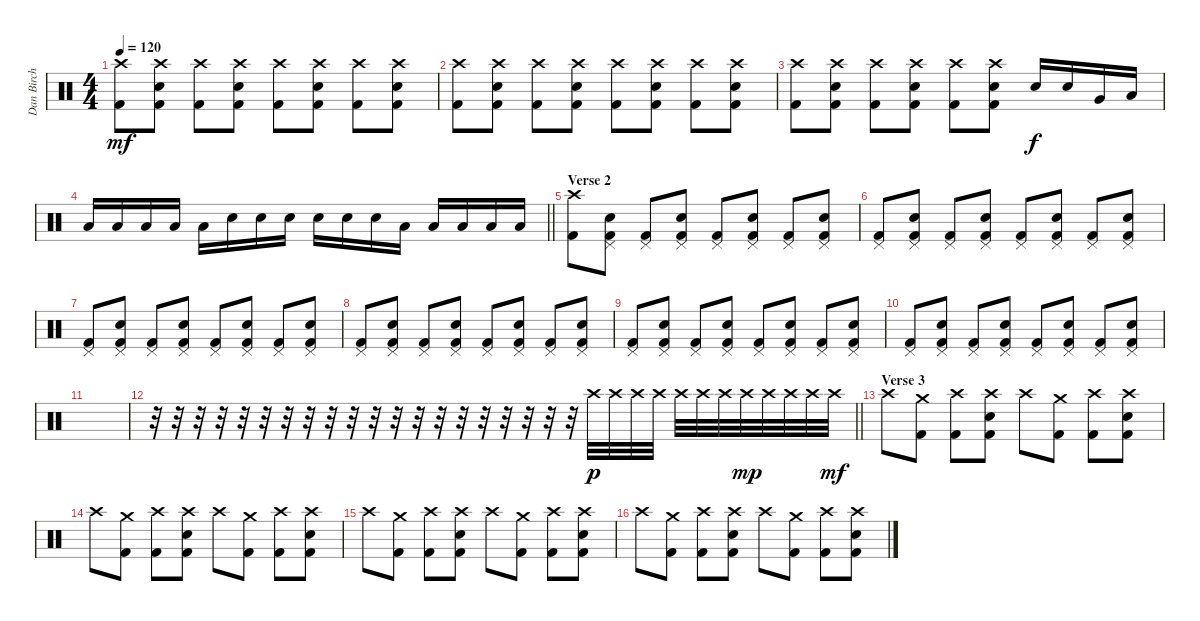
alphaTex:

\track ("Dan Birch" "Dan Birch") {instrument percussion}
\staff {score}
\articulation defaults
\ts (4 4)
\tempo 120
\clef neutral
\ks c
("Crash high (hit)" "Kick (hit) 2").8{dy mf} ("Crash high (hit)" "Snare (hit) 2" "Kick (hit) 2").8 ("Crash high (hit)" "Kick (hit) 2").8 ("Crash high (hit)" "Snare (hit) 2" "Kick (hit) 2").8 ("Crash high (hit)" "Kick (hit) 2").8 ("Crash high (hit)" "Snare (hit) 2" "Kick (hit) 2").8 ("Crash high (hit)" "Kick (hit) 2").8 ("Crash high (hit)" "Snare (hit) 2" "Kick (hit) 2").8 |
("Crash high (hit)" "Kick (hit) 2").8 ("Crash high (hit)" "Snare (hit) 2" "Kick (hit) 2").8 ("Crash high (hit)" "Kick (hit) 2").8 ("Crash high (hit)" "Snare (hit) 2" "Kick (hit) 2").8 ("Crash high (hit)" "Kick (hit) 2").8 ("Crash high (hit)" "Snare (hit) 2" "Kick (hit) 2").8 ("Crash high (hit)" "Kick (hit) 2").8 ("Crash high (hit)" "Snare (hit) 2" "Kick (hit) 2").8 |
("Crash high (hit)" "Kick (hit) 2").8 ("Crash high (hit)" "Snare (hit) 2" "Kick (hit) 2").8 ("Crash high (hit)" "Kick (hit) 2").8 ("Crash high (hit)" "Snare (hit) 2" "Kick (hit) 2").8 ("Crash high (hit)" "Kick (hit) 2").8 ("Crash high (hit)" "Snare (hit) 2" "Kick (hit) 2").8 "Snare (hit) 2".16{dy f} "Snare (hit) 2".16 "Very Low Tom (hit)".16 "Low Tom (hit)".16 |
\barLineRight lightlight "Low Tom (hit)".16 "Low Tom (hit)".16 "Low Tom (hit)".16 "Low Tom (hit)".16 "Low Tom (hit)".16 "Snare (hit) 2".16 "Snare (hit) 2".16 "Snare (hit) 2".16 "Snare (hit) 2".16 "Snare (hit) 2".16 "Snare (hit) 2".16 "Low Floor Tom (hit)".16 "Low Floor Tom (hit)".16 "Low Floor Tom (hit)".16 "Low Floor Tom (hit)".16 "Low Floor Tom (hit)".16
|
\section ("" "Verse 2")
("Crash high (hit)" "Kick (hit) 2").8 ("Pedal Hi-Hat (hit)" "Snare (hit) 2" "Kick (hit) 2").8 ("Pedal Hi-Hat (hit)" "Kick (hit) 2").8 ("Pedal Hi-Hat (hit)" "Snare (hit) 2" "Kick (hit) 2").8 ("Pedal Hi-Hat (hit)" "Kick (hit) 2").8 ("Pedal Hi-Hat (hit)" "Snare (hit) 2" "Kick (hit) 2").8 ("Pedal Hi-Hat (hit)" "Kick (hit) 2").8 ("Pedal Hi-Hat (hit)" "Snare (hit) 2" "Kick (hit) 2").8 |
("Pedal Hi-Hat (hit)" "Kick (hit) 2").8 ("Pedal Hi-Hat (hit)" "Snare (hit) 2" "Kick (hit) 2").8 ("Pedal Hi-Hat (hit)" "Kick (hit) 2").8 ("Pedal Hi-Hat (hit)" "Snare (hit) 2" "Kick (hit) 2").8 ("Pedal Hi-Hat (hit)" "Kick (hit) 2").8 ("Pedal Hi-Hat (hit)" "Snare (hit) 2" "Kick (hit) 2").8 ("Pedal Hi-Hat (hit)" "Kick (hit) 2").8 ("Pedal Hi-Hat (hit)" "Snare (hit) 2" "Kick (hit) 2").8 |
("Pedal Hi-Hat (hit)" "Kick (hit) 2").8 ("Pedal Hi-Hat (hit)" "Snare (hit) 2" "Kick (hit) 2").8 ("Pedal Hi-Hat (hit)" "Kick (hit) 2").8 ("Pedal Hi-Hat (hit)" "Snare (hit) 2" "Kick (hit) 2").8 ("Pedal Hi-Hat (hit)" "Kick (hit) 2").8 ("Pedal Hi-Hat (hit)" "Snare (hit) 2" "Kick (hit) 2").8 ("Pedal Hi-Hat (hit)" "Kick (hit) 2").8 ("Pedal Hi-Hat (hit)" "Snare (hit) 2" "Kick (hit) 2").8 |
("Pedal Hi-Hat (hit)" "Kick (hit) 2").8 ("Pedal Hi-Hat (hit)" "Snare (hit) 2" "Kick (hit) 2").8 ("Pedal Hi-Hat (hit)" "Kick (hit) 2").8 ("Pedal Hi-Hat (hit)" "Snare (hit) 2" "Kick (hit) 2").8 ("Pedal Hi-Hat (hit)" "Kick (hit) 2").8 ("Pedal Hi-Hat (hit)" "Snare (hit) 2" "Kick (hit) 2").8 ("Pedal Hi-Hat (hit)" "Kick (hit) 2").8 ("Pedal Hi-Hat (hit)" "Snare (hit) 2" "Kick (hit) 2").8 |
("Pedal Hi-Hat (hit)" "Kick (hit) 2").8 ("Pedal Hi-Hat (hit)" "Snare (hit) 2" "Kick (hit) 2").8 ("Pedal Hi-Hat (hit)" "Kick (hit) 2").8 ("Pedal Hi-Hat (hit)" "Snare (hit) 2" "Kick (hit) 2").8 ("Pedal Hi-Hat (hit)" "Kick (hit) 2").8 ("Pedal Hi-Hat (hit)" "Snare (hit) 2" "Kick (hit) 2").8 ("Pedal Hi-Hat (hit)" "Kick (hit) 2").8 ("Pedal Hi-Hat (hit)" "Snare (hit) 2" "Kick (hit) 2").8 |
("Pedal Hi-Hat (hit)" "Kick (hit) 2").8 ("Pedal Hi-Hat (hit)" "Snare (hit) 2" "Kick (hit) 2").8 ("Pedal Hi-Hat (hit)" "Kick (hit) 2").8 ("Pedal Hi-Hat (hit)" "Snare (hit) 2" "Kick (hit) 2").8 ("Pedal Hi-Hat (hit)" "Kick (hit) 2").8 ("Pedal Hi-Hat (hit)" "Snare (hit) 2" "Kick (hit) 2").8 ("Pedal Hi-Hat (hit)" "Kick (hit) 2").8 ("Pedal Hi-Hat (hit)" "Snare (hit) 2" "Kick (hit) 2").8 |
|
\barLineRight lightlight
r.32 r.32 r.32 r.32 r.32 r.32 r.32 r.32 r.32 r.32 r.32 r.32 r.32 r.32 r.32 r.32 r.32 r.32 r.32 r.32 "Crash high (hit)".32{dy p} "Crash high (hit)".32 "Crash high (hit)".32 "Crash high (hit)".32 "Crash high (hit)".32 "Crash high (hit)".32 "Crash high (hit)".32 "Crash high (hit)".32{dy mp} "Crash high (hit)".32 "Crash high (hit)".32 "Crash high (hit)".32 "Crash high (hit)".32{dy mf} |
\section ("" "Verse 3")
"Crash high (hit)".8 ("Crash medium (hit)" "Kick (hit) 2").8 ("Crash high (hit)" "Kick (hit) 2").8 ("Crash high (hit)" "Snare (hit) 2" "Kick (hit) 2").8 "Crash high (hit)".8 ("Crash medium (hit)" "Kick (hit) 2").8 ("Crash high (hit)" "Kick (hit) 2").8 ("Crash high (hit)" "Snare (hit) 2" "Kick (hit) 2").8 |
"Crash high (hit)".8 ("Crash medium (hit)" "Kick (hit) 2").8 ("Crash high (hit)" "Kick (hit) 2").8 ("Crash high (hit)" "Snare (hit) 2" "Kick (hit) 2").8 "Crash high (hit)".8 ("Crash medium (hit)" "Kick (hit) 2").8 ("Crash high (hit)" "Kick (hit) 2").8 ("Crash high (hit)" "Snare (hit) 2" "Kick (hit) 2").8 |
"Crash high (hit)".8 ("Crash medium (hit)" "Kick (hit) 2").8 ("Crash high (hit)" "Kick (hit) 2").8 ("Crash high (hit)" "Snare (hit) 2" "Kick (hit) 2").8 "Crash high (hit)".8 ("Crash medium (hit)" "Kick (hit) 2").8 ("Crash high (hit)" "Kick (hit) 2").8 ("Crash high (hit)" "Snare (hit) 2" "Kick (hit) 2").8 |
"Crash high (hit)".8 ("Crash medium (hit)" "Kick (hit) 2").8 ("Crash high (hit)" "Kick (hit) 2").8 ("Crash high (hit)" "Snare (hit) 2" "Kick (hit) 2").8 "Crash high (hit)".8 ("Crash medium (hit)" "Kick (hit) 2").8 ("Crash high (hit)" "Kick (hit) 2").8 ("Crash high (hit)" "Snare (hit) 2" "Kick (hit) 2").8
